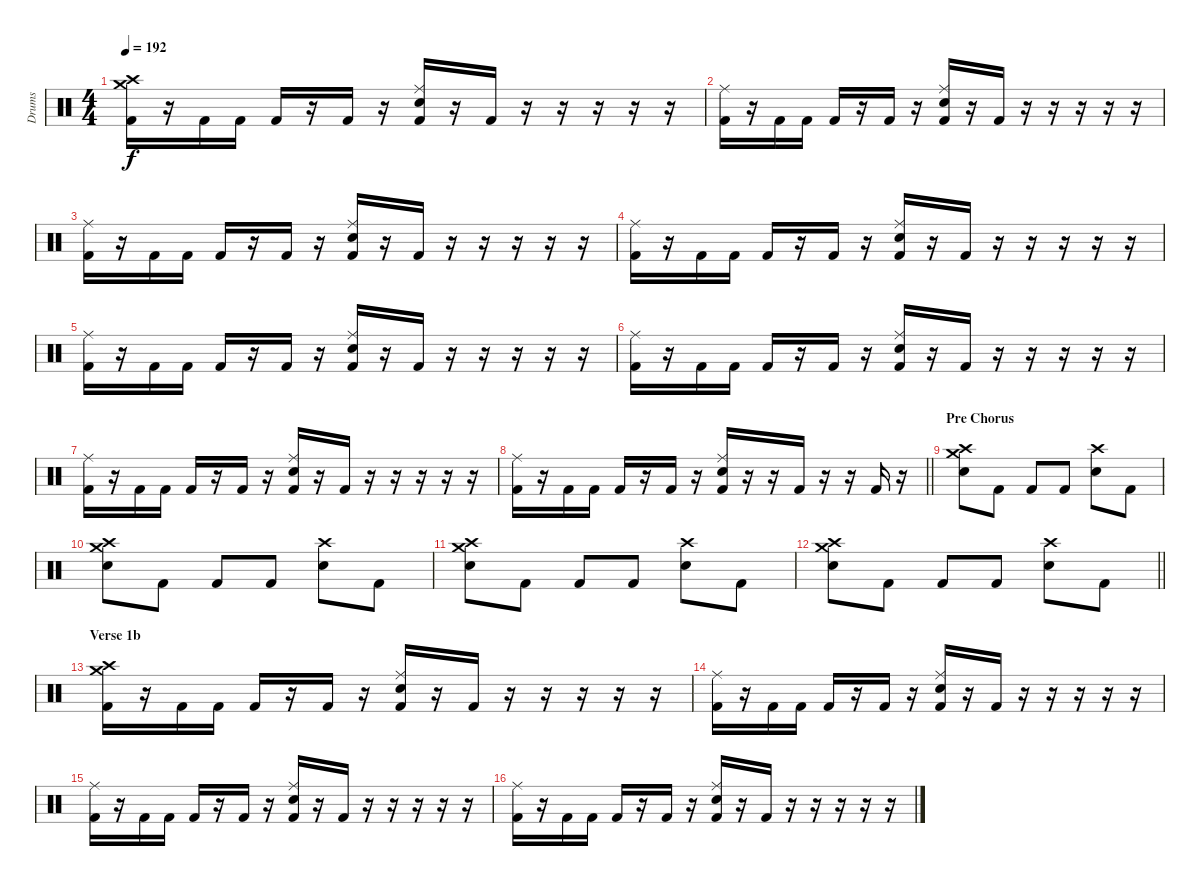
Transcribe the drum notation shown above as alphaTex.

\track ("Drums" "Drums") {instrument percussion}
\staff {score}
\articulation defaults
\ts (4 4)
\tempo 192
\clef neutral
\ks c
("Crash high (hit)" "Crash medium (hit)" "Kick (hit) 2").16{dy f} r.16 "Kick (hit) 2".16 "Kick (hit) 2".16 "Kick (hit) 2".16 r.16 "Kick (hit) 2".16 r.16 ("Ride (middle)" "Snare (hit) 2" "Kick (hit) 2").16 r.16 "Kick (hit) 2".16 r.16 r.16 r.16 r.16 r.16 |
("Ride (middle)" "Kick (hit) 2").16 r.16 "Kick (hit) 2".16 "Kick (hit) 2".16 "Kick (hit) 2".16 r.16 "Kick (hit) 2".16 r.16 ("Ride (middle)" "Snare (hit) 2" "Kick (hit) 2").16 r.16 "Kick (hit) 2".16 r.16 r.16 r.16 r.16 r.16 |
("Ride (middle)" "Kick (hit) 2").16 r.16 "Kick (hit) 2".16 "Kick (hit) 2".16 "Kick (hit) 2".16 r.16 "Kick (hit) 2".16 r.16 ("Ride (middle)" "Snare (hit) 2" "Kick (hit) 2").16 r.16 "Kick (hit) 2".16 r.16 r.16 r.16 r.16 r.16 |
("Ride (middle)" "Kick (hit) 2").16 r.16 "Kick (hit) 2".16 "Kick (hit) 2".16 "Kick (hit) 2".16 r.16 "Kick (hit) 2".16 r.16 ("Ride (middle)" "Snare (hit) 2" "Kick (hit) 2").16 r.16 "Kick (hit) 2".16 r.16 r.16 r.16 r.16 r.16 |
("Ride (middle)" "Kick (hit) 2").16 r.16 "Kick (hit) 2".16 "Kick (hit) 2".16 "Kick (hit) 2".16 r.16 "Kick (hit) 2".16 r.16 ("Ride (middle)" "Snare (hit) 2" "Kick (hit) 2").16 r.16 "Kick (hit) 2".16 r.16 r.16 r.16 r.16 r.16 |
("Ride (middle)" "Kick (hit) 2").16 r.16 "Kick (hit) 2".16 "Kick (hit) 2".16 "Kick (hit) 2".16 r.16 "Kick (hit) 2".16 r.16 ("Ride (middle)" "Snare (hit) 2" "Kick (hit) 2").16 r.16 "Kick (hit) 2".16 r.16 r.16 r.16 r.16 r.16 |
("Ride (middle)" "Kick (hit) 2").16 r.16 "Kick (hit) 2".16 "Kick (hit) 2".16 "Kick (hit) 2".16 r.16 "Kick (hit) 2".16 r.16 ("Ride (middle)" "Snare (hit) 2" "Kick (hit) 2").16 r.16 "Kick (hit) 2".16 r.16 r.16 r.16 r.16 r.16 |
\barLineRight lightlight
("Ride (middle)" "Kick (hit) 2").16 r.16 "Kick (hit) 2".16 "Kick (hit) 2".16 "Kick (hit) 2".16 r.16 "Kick (hit) 2".16 r.16 ("Ride (middle)" "Snare (hit) 2" "Kick (hit) 2").16 r.16 r.16 "Kick (hit) 2".16 r.16 r.16 "Kick (hit) 2".16 r.16 |
\section ("" "Pre Chorus")
("Crash high (hit)" "Crash medium (hit)" "Snare (hit) 2").8 "Kick (hit) 2".8 "Kick (hit) 2".8 "Kick (hit) 2".8 ("Crash high (hit)" "Snare (hit) 2").8 "Kick (hit) 2".8 |
("Crash high (hit)" "Crash medium (hit)" "Snare (hit) 2").8 "Kick (hit) 2".8 "Kick (hit) 2".8 "Kick (hit) 2".8 ("Crash high (hit)" "Snare (hit) 2").8 "Kick (hit) 2".8 |
("Crash high (hit)" "Crash medium (hit)" "Snare (hit) 2").8 "Kick (hit) 2".8 "Kick (hit) 2".8 "Kick (hit) 2".8 ("Crash high (hit)" "Snare (hit) 2").8 "Kick (hit) 2".8 |
\barLineRight lightlight
("Crash high (hit)" "Crash medium (hit)" "Snare (hit) 2").8 "Kick (hit) 2".8 "Kick (hit) 2".8 "Kick (hit) 2".8 ("Crash high (hit)" "Snare (hit) 2").8 "Kick (hit) 2".8 |
\section ("" "Verse 1b")
("Crash high (hit)" "Crash medium (hit)" "Kick (hit) 2").16 r.16 "Kick (hit) 2".16 "Kick (hit) 2".16 "Kick (hit) 2".16 r.16 "Kick (hit) 2".16 r.16 ("Ride (middle)" "Snare (hit) 2" "Kick (hit) 2").16 r.16 "Kick (hit) 2".16 r.16 r.16 r.16 r.16 r.16 |
("Ride (middle)" "Kick (hit) 2").16 r.16 "Kick (hit) 2".16 "Kick (hit) 2".16 "Kick (hit) 2".16 r.16 "Kick (hit) 2".16 r.16 ("Ride (middle)" "Snare (hit) 2" "Kick (hit) 2").16 r.16 "Kick (hit) 2".16 r.16 r.16 r.16 r.16 r.16 |
("Ride (middle)" "Kick (hit) 2").16 r.16 "Kick (hit) 2".16 "Kick (hit) 2".16 "Kick (hit) 2".16 r.16 "Kick (hit) 2".16 r.16 ("Ride (middle)" "Snare (hit) 2" "Kick (hit) 2").16 r.16 "Kick (hit) 2".16 r.16 r.16 r.16 r.16 r.16 |
("Ride (middle)" "Kick (hit) 2").16 r.16 "Kick (hit) 2".16 "Kick (hit) 2".16 "Kick (hit) 2".16 r.16 "Kick (hit) 2".16 r.16 ("Ride (middle)" "Snare (hit) 2" "Kick (hit) 2").16 r.16 "Kick (hit) 2".16 r.16 r.16 r.16 r.16 r.16
